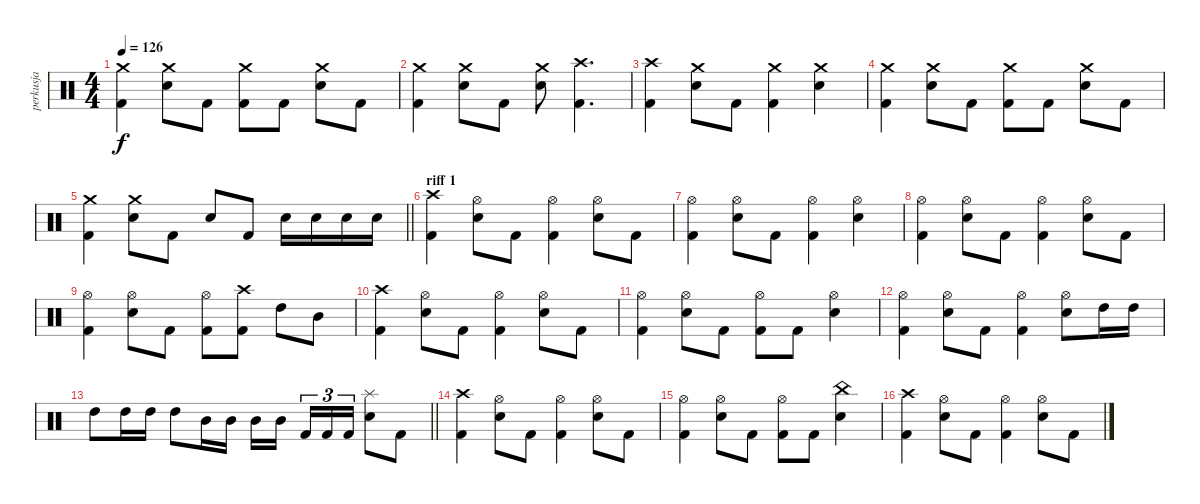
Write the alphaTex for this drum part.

\track ("perkusja" "perkusja") {instrument percussion}
\staff {score}
\articulation defaults
\ts (4 4)
\tempo 126
\clef neutral
\ks c
("Crash medium (hit)" "Kick (hit) 2").4{dy f} ("Crash medium (hit)" "Electric Snare (hit)").8 "Kick (hit) 2".8 ("Crash medium (hit)" "Kick (hit) 2").8 "Kick (hit) 2".8 ("Crash medium (hit)" "Electric Snare (hit)").8 "Kick (hit) 2".8 |
("Crash medium (hit)" "Kick (hit) 2").4 ("Crash medium (hit)" "Electric Snare (hit)").8 "Kick (hit) 2".8 ("Crash medium (hit)" "Electric Snare (hit)").8 ("Crash high (hit)" "Kick (hit) 2").4{d} |
("Crash high (hit)" "Kick (hit) 2").4 ("Crash medium (hit)" "Electric Snare (hit)").8 "Kick (hit) 2".8 ("Crash medium (hit)" "Kick (hit) 2").4 ("Crash medium (hit)" "Electric Snare (hit)").4 |
("Crash medium (hit)" "Kick (hit) 2").4 ("Crash medium (hit)" "Electric Snare (hit)").8 "Kick (hit) 2".8 ("Crash medium (hit)" "Kick (hit) 2").8 "Kick (hit) 2".8 ("Crash medium (hit)" "Electric Snare (hit)").8 "Kick (hit) 2".8 |
\barLineRight lightlight
("Crash medium (hit)" "Kick (hit) 2").4 ("Crash medium (hit)" "Electric Snare (hit)").8 "Kick (hit) 2".8 "Electric Snare (hit)".8 "Kick (hit) 2".8 "Electric Snare (hit)".16 "Electric Snare (hit)".16 "Electric Snare (hit)".16 "Electric Snare (hit)".16 |
\section ("" "riff 1")
("Crash high (hit)" "Kick (hit) 2").4 ("Hi-Hat (open)" "Electric Snare (hit)").8 "Kick (hit) 2".8 ("Hi-Hat (open)" "Kick (hit) 2").4 ("Hi-Hat (open)" "Electric Snare (hit)").8 "Kick (hit) 2".8 |
("Hi-Hat (open)" "Kick (hit) 2").4 ("Hi-Hat (open)" "Electric Snare (hit)").8 "Kick (hit) 2".8 ("Hi-Hat (open)" "Kick (hit) 2").4 ("Hi-Hat (open)" "Electric Snare (hit)").4 |
("Hi-Hat (open)" "Kick (hit) 2").4 ("Hi-Hat (open)" "Electric Snare (hit)").8 "Kick (hit) 2".8 ("Hi-Hat (open)" "Kick (hit) 2").4 ("Hi-Hat (open)" "Electric Snare (hit)").8 "Kick (hit) 2".8 |
("Hi-Hat (open)" "Kick (hit) 2").4 ("Hi-Hat (open)" "Electric Snare (hit)").8 "Kick (hit) 2".8 ("Hi-Hat (open)" "Kick (hit) 2").8 ("Crash high (hit)" "Kick (hit) 2").8 "High Tom (hit)".8 "Mid Tom (hit)".8 |
("Crash high (hit)" "Kick (hit) 2").4 ("Hi-Hat (open)" "Electric Snare (hit)").8 "Kick (hit) 2".8 ("Hi-Hat (open)" "Kick (hit) 2").4 ("Hi-Hat (open)" "Electric Snare (hit)").8 "Kick (hit) 2".8 |
("Hi-Hat (open)" "Kick (hit) 2").4 ("Hi-Hat (open)" "Electric Snare (hit)").8 "Kick (hit) 2".8 ("Hi-Hat (open)" "Kick (hit) 2").8 "Kick (hit) 2".8 ("Hi-Hat (open)" "Electric Snare (hit)").4 |
("Hi-Hat (open)" "Kick (hit) 2").4 ("Hi-Hat (open)" "Electric Snare (hit)").8 "Kick (hit) 2".8 ("Hi-Hat (open)" "Kick (hit) 2").4 ("Hi-Hat (open)" "Electric Snare (hit)").8 "High Tom (hit)".16 "High Tom (hit)".16 |
\barLineRight lightlight "High Tom (hit)".8 "High Tom (hit)".16 "High Tom (hit)".16 "High Tom (hit)".8 "Mid Tom (hit)".16 "Mid Tom (hit)".16 "Mid Tom (hit)".16 "Mid Tom (hit)".16{beam splitsecondary} "Kick (hit) 2".16{tu (3 2)} "Kick (hit) 2".16{tu (3 2)} "Kick (hit) 2".16{tu (3 2)}
("Splash (hit)" "Electric Snare (hit)").8 "Kick (hit) 2".8 |
("Crash high (hit)" "Kick (hit) 2").4 ("Hi-Hat (open)" "Electric Snare (hit)").8 "Kick (hit) 2".8 ("Hi-Hat (open)" "Kick (hit) 2").4 ("Hi-Hat (open)" "Electric Snare (hit)").8 "Kick (hit) 2".8 |
("Hi-Hat (open)" "Kick (hit) 2").4 ("Hi-Hat (open)" "Electric Snare (hit)").8 "Kick (hit) 2".8 ("Hi-Hat (open)" "Kick (hit) 2").8 "Kick (hit) 2".8 ("China (hit)" "Electric Snare (hit)").4 |
("Crash high (hit)" "Kick (hit) 2").4 ("Hi-Hat (open)" "Electric Snare (hit)").8 "Kick (hit) 2".8 ("Hi-Hat (open)" "Kick (hit) 2").4 ("Hi-Hat (open)" "Electric Snare (hit)").8 "Kick (hit) 2".8
